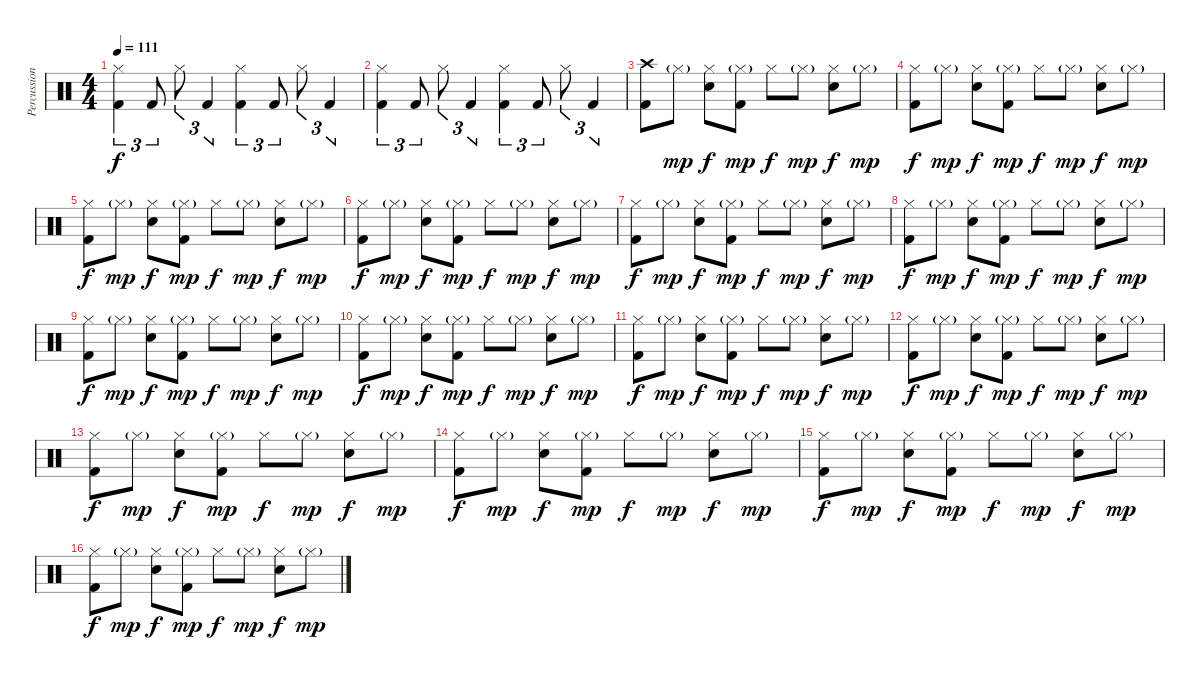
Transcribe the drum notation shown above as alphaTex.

\track ("Percussion" "Percussion") {instrument percussion}
\staff {score}
\articulation defaults
\ts (4 4)
\tempo 111
\clef neutral
\ks c
("Hi-Hat (closed)" "Kick (hit) 2").4{tu (3 2) dy f} "Kick (hit) 2".8{tu (3 2)} "Hi-Hat (closed)".8{tu (3 2)} "Kick (hit) 2".4{tu (3 2)} ("Hi-Hat (closed)" "Kick (hit) 2").4{tu (3 2)} "Kick (hit) 2".8{tu (3 2)} "Hi-Hat (closed)".8{tu (3 2)} "Kick (hit) 2".4{tu (3 2)} |
("Hi-Hat (closed)" "Kick (hit) 2").4{tu (3 2)} "Kick (hit) 2".8{tu (3 2)} "Hi-Hat (closed)".8{tu (3 2)} "Kick (hit) 2".4{tu (3 2)} ("Hi-Hat (closed)" "Kick (hit) 2").4{tu (3 2)} "Kick (hit) 2".8{tu (3 2)} "Hi-Hat (closed)".8{tu (3 2)} "Kick (hit) 2".4{tu (3 2)} |
("Crash high (hit)" "Kick (hit) 2").8 "Hi-Hat (closed)"{g}.8{dy mp} ("Hi-Hat (closed)" "Electric Snare (hit)").8{dy f} ("Hi-Hat (closed)"{g} "Kick (hit) 2").8{dy mp} "Hi-Hat (closed)".8{dy f} "Hi-Hat (closed)"{g}.8{dy mp} ("Hi-Hat (closed)" "Electric Snare (hit)").8{dy f} "Hi-Hat (closed)"{g}.8{dy mp} |
("Hi-Hat (closed)" "Kick (hit) 2").8{dy f} "Hi-Hat (closed)"{g}.8{dy mp} ("Hi-Hat (closed)" "Electric Snare (hit)").8{dy f} ("Hi-Hat (closed)"{g} "Kick (hit) 2").8{dy mp} "Hi-Hat (closed)".8{dy f} "Hi-Hat (closed)"{g}.8{dy mp} ("Hi-Hat (closed)" "Electric Snare (hit)").8{dy f} "Hi-Hat (closed)"{g}.8{dy mp} |
("Hi-Hat (closed)" "Kick (hit) 2").8{dy f} "Hi-Hat (closed)"{g}.8{dy mp} ("Hi-Hat (closed)" "Electric Snare (hit)").8{dy f} ("Hi-Hat (closed)"{g} "Kick (hit) 2").8{dy mp} "Hi-Hat (closed)".8{dy f} "Hi-Hat (closed)"{g}.8{dy mp} ("Hi-Hat (closed)" "Electric Snare (hit)").8{dy f} "Hi-Hat (closed)"{g}.8{dy mp} |
("Hi-Hat (closed)" "Kick (hit) 2").8{dy f} "Hi-Hat (closed)"{g}.8{dy mp} ("Hi-Hat (closed)" "Electric Snare (hit)").8{dy f} ("Hi-Hat (closed)"{g} "Kick (hit) 2").8{dy mp} "Hi-Hat (closed)".8{dy f} "Hi-Hat (closed)"{g}.8{dy mp} ("Hi-Hat (closed)" "Electric Snare (hit)").8{dy f} "Hi-Hat (closed)"{g}.8{dy mp} |
("Hi-Hat (closed)" "Kick (hit) 2").8{dy f} "Hi-Hat (closed)"{g}.8{dy mp} ("Hi-Hat (closed)" "Electric Snare (hit)").8{dy f} ("Hi-Hat (closed)"{g} "Kick (hit) 2").8{dy mp} "Hi-Hat (closed)".8{dy f} "Hi-Hat (closed)"{g}.8{dy mp} ("Hi-Hat (closed)" "Electric Snare (hit)").8{dy f} "Hi-Hat (closed)"{g}.8{dy mp} |
("Hi-Hat (closed)" "Kick (hit) 2").8{dy f} "Hi-Hat (closed)"{g}.8{dy mp} ("Hi-Hat (closed)" "Electric Snare (hit)").8{dy f} ("Hi-Hat (closed)"{g} "Kick (hit) 2").8{dy mp} "Hi-Hat (closed)".8{dy f} "Hi-Hat (closed)"{g}.8{dy mp} ("Hi-Hat (closed)" "Electric Snare (hit)").8{dy f} "Hi-Hat (closed)"{g}.8{dy mp} |
("Hi-Hat (closed)" "Kick (hit) 2").8{dy f} "Hi-Hat (closed)"{g}.8{dy mp} ("Hi-Hat (closed)" "Electric Snare (hit)").8{dy f} ("Hi-Hat (closed)"{g} "Kick (hit) 2").8{dy mp} "Hi-Hat (closed)".8{dy f} "Hi-Hat (closed)"{g}.8{dy mp} ("Hi-Hat (closed)" "Electric Snare (hit)").8{dy f} "Hi-Hat (closed)"{g}.8{dy mp} |
("Hi-Hat (closed)" "Kick (hit) 2").8{dy f} "Hi-Hat (closed)"{g}.8{dy mp} ("Hi-Hat (closed)" "Electric Snare (hit)").8{dy f} ("Hi-Hat (closed)"{g} "Kick (hit) 2").8{dy mp} "Hi-Hat (closed)".8{dy f} "Hi-Hat (closed)"{g}.8{dy mp} ("Hi-Hat (closed)" "Electric Snare (hit)").8{dy f} "Hi-Hat (closed)"{g}.8{dy mp} |
("Hi-Hat (closed)" "Kick (hit) 2").8{dy f} "Hi-Hat (closed)"{g}.8{dy mp} ("Hi-Hat (closed)" "Electric Snare (hit)").8{dy f} ("Hi-Hat (closed)"{g} "Kick (hit) 2").8{dy mp} "Hi-Hat (closed)".8{dy f} "Hi-Hat (closed)"{g}.8{dy mp} ("Hi-Hat (closed)" "Electric Snare (hit)").8{dy f} "Hi-Hat (closed)"{g}.8{dy mp} |
("Hi-Hat (closed)" "Kick (hit) 2").8{dy f} "Hi-Hat (closed)"{g}.8{dy mp} ("Hi-Hat (closed)" "Electric Snare (hit)").8{dy f} ("Hi-Hat (closed)"{g} "Kick (hit) 2").8{dy mp} "Hi-Hat (closed)".8{dy f} "Hi-Hat (closed)"{g}.8{dy mp} ("Hi-Hat (closed)" "Electric Snare (hit)").8{dy f} "Hi-Hat (closed)"{g}.8{dy mp} |
("Hi-Hat (closed)" "Kick (hit) 2").8{dy f} "Hi-Hat (closed)"{g}.8{dy mp} ("Hi-Hat (closed)" "Electric Snare (hit)").8{dy f} ("Hi-Hat (closed)"{g} "Kick (hit) 2").8{dy mp} "Hi-Hat (closed)".8{dy f} "Hi-Hat (closed)"{g}.8{dy mp} ("Hi-Hat (closed)" "Electric Snare (hit)").8{dy f} "Hi-Hat (closed)"{g}.8{dy mp} |
("Hi-Hat (closed)" "Kick (hit) 2").8{dy f} "Hi-Hat (closed)"{g}.8{dy mp} ("Hi-Hat (closed)" "Electric Snare (hit)").8{dy f} ("Hi-Hat (closed)"{g} "Kick (hit) 2").8{dy mp} "Hi-Hat (closed)".8{dy f} "Hi-Hat (closed)"{g}.8{dy mp} ("Hi-Hat (closed)" "Electric Snare (hit)").8{dy f} "Hi-Hat (closed)"{g}.8{dy mp} |
("Hi-Hat (closed)" "Kick (hit) 2").8{dy f} "Hi-Hat (closed)"{g}.8{dy mp} ("Hi-Hat (closed)" "Electric Snare (hit)").8{dy f} ("Hi-Hat (closed)"{g} "Kick (hit) 2").8{dy mp} "Hi-Hat (closed)".8{dy f} "Hi-Hat (closed)"{g}.8{dy mp} ("Hi-Hat (closed)" "Electric Snare (hit)").8{dy f} "Hi-Hat (closed)"{g}.8{dy mp} |
("Hi-Hat (closed)" "Kick (hit) 2").8{dy f} "Hi-Hat (closed)"{g}.8{dy mp} ("Hi-Hat (closed)" "Electric Snare (hit)").8{dy f} ("Hi-Hat (closed)"{g} "Kick (hit) 2").8{dy mp} "Hi-Hat (closed)".8{dy f} "Hi-Hat (closed)"{g}.8{dy mp} ("Hi-Hat (closed)" "Electric Snare (hit)").8{dy f} "Hi-Hat (closed)"{g}.8{dy mp}
